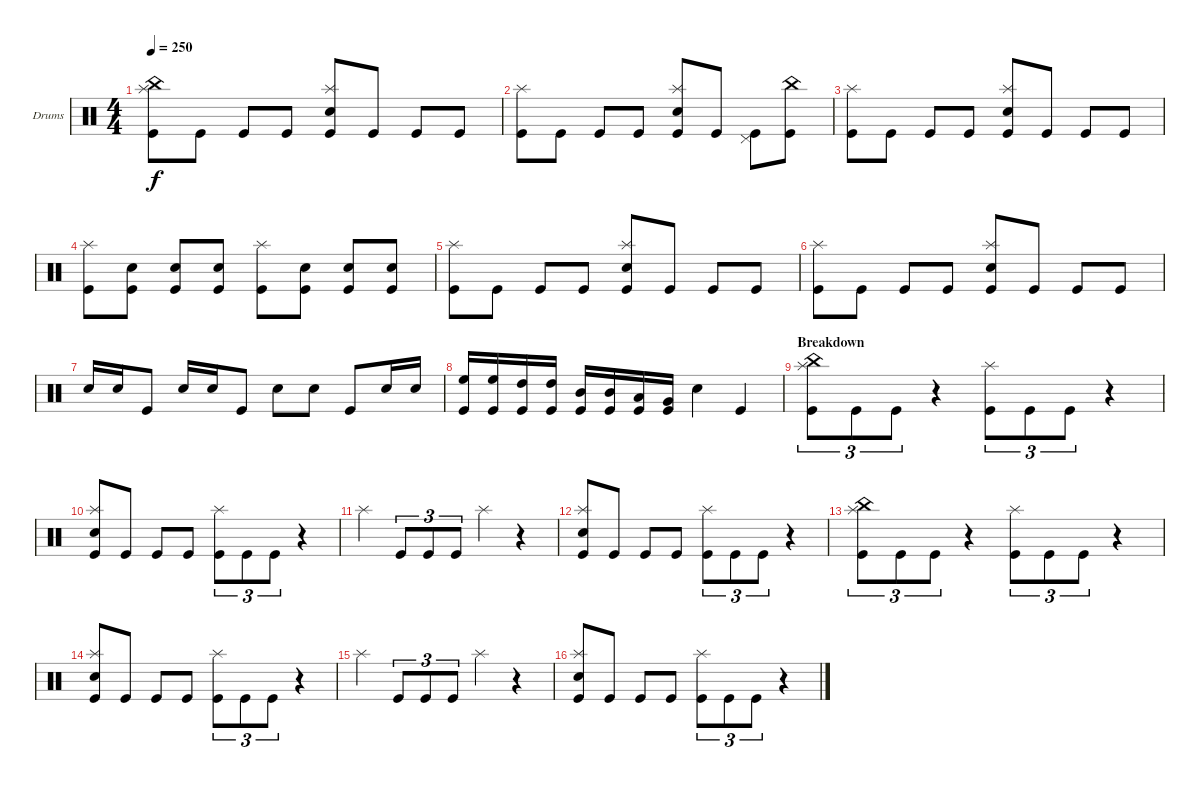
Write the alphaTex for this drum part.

\defaultSystemsLayout 4
\bracketExtendMode groupsimilarinstruments
\firstSystemTrackNameOrientation horizontal
\otherSystemsTrackNameOrientation horizontal
\track ("Drumkit" "Drums") {instrument percussion}
\staff {score}
\articulation defaults
\ts (4 4)
\tempo 250
\clef neutral
\ks c
("Kick (hit)" "Splash (hit)" "China (hit)").8{dy f} "Kick (hit)".8 "Kick (hit)".8 "Kick (hit)".8 ("Kick (hit)" "Splash (hit)" "Snare (hit) 2").8 "Kick (hit)".8 "Kick (hit)".8 "Kick (hit)".8 |
("Kick (hit)" "Splash (hit)").8 "Kick (hit)".8 "Kick (hit)".8 "Kick (hit)".8 ("Kick (hit)" "Splash (hit)" "Snare (hit) 2").8 "Kick (hit)".8 ("Kick (hit)" "Pedal Hi-Hat (hit)").8 ("Kick (hit)" "China (hit)").8 |
("Kick (hit)" "Splash (hit)").8 "Kick (hit)".8 "Kick (hit)".8 "Kick (hit)".8 ("Kick (hit)" "Splash (hit)" "Snare (hit) 2").8 "Kick (hit)".8 "Kick (hit)".8 "Kick (hit)".8 |
("Kick (hit)" "Splash (hit)").8 ("Kick (hit)" "Snare (hit) 2").8 ("Kick (hit)" "Snare (hit) 2").8 ("Kick (hit)" "Snare (hit) 2").8 ("Kick (hit)" "Splash (hit)").8 ("Kick (hit)" "Snare (hit) 2").8 ("Kick (hit)" "Snare (hit) 2").8 ("Kick (hit)" "Snare (hit) 2").8 |
("Kick (hit)" "Splash (hit)").8 "Kick (hit)".8 "Kick (hit)".8 "Kick (hit)".8 ("Kick (hit)" "Splash (hit)" "Snare (hit) 2").8 "Kick (hit)".8 "Kick (hit)".8 "Kick (hit)".8 |
("Kick (hit)" "Splash (hit)").8 "Kick (hit)".8 "Kick (hit)".8 "Kick (hit)".8 ("Kick (hit)" "Splash (hit)" "Snare (hit) 2").8 "Kick (hit)".8 "Kick (hit)".8 "Kick (hit)".8 |
"Snare (hit) 2".16 "Snare (hit) 2".16 "Kick (hit)".8 "Snare (hit) 2".16 "Snare (hit) 2".16 "Kick (hit)".8 "Snare (hit) 2".8 "Snare (hit) 2".8 "Kick (hit)".8 "Snare (hit) 2".16 "Snare (hit) 2".16 |
("Kick (hit)" "High Floor Tom (hit)").16 ("Kick (hit)" "High Floor Tom (hit)").16 ("Kick (hit)" "High Tom (hit)").16 ("Kick (hit)" "High Tom (hit)").16 ("Kick (hit)" "Mid Tom (hit)").16 ("Kick (hit)" "Mid Tom (hit)").16 ("Kick (hit)" "Low Tom (hit)").16 ("Kick (hit)" "Very Low Tom (hit)").16 "Snare (hit) 2".4 "Kick (hit)".4 |
\section ("" "Breakdown")
("Kick (hit)" "China (hit)" "Splash (hit)").8{tu (3 2)} "Kick (hit)".8{tu (3 2)} "Kick (hit)".8{tu (3 2)} r.4 ("Kick (hit)" "Splash (hit)").8{tu (3 2)} "Kick (hit)".8{tu (3 2)} "Kick (hit)".8{tu (3 2)} r.4 |
("Kick (hit)" "Splash (hit)" "Snare (hit) 2").8 "Kick (hit)".8 "Kick (hit)".8 "Kick (hit)".8 ("Kick (hit)" "Splash (hit)").8{tu (3 2)} "Kick (hit)".8{tu (3 2)} "Kick (hit)".8{tu (3 2)} r.4 |
"Splash (hit)".4 "Kick (hit)".8{tu (3 2)} "Kick (hit)".8{tu (3 2)} "Kick (hit)".8{tu (3 2)} "Splash (hit)".4 r.4 |
("Kick (hit)" "Splash (hit)" "Snare (hit) 2").8 "Kick (hit)".8 "Kick (hit)".8 "Kick (hit)".8 ("Kick (hit)" "Splash (hit)").8{tu (3 2)} "Kick (hit)".8{tu (3 2)} "Kick (hit)".8{tu (3 2)} r.4 |
("Kick (hit)" "China (hit)" "Splash (hit)").8{tu (3 2)} "Kick (hit)".8{tu (3 2)} "Kick (hit)".8{tu (3 2)} r.4 ("Kick (hit)" "Splash (hit)").8{tu (3 2)} "Kick (hit)".8{tu (3 2)} "Kick (hit)".8{tu (3 2)} r.4 |
("Kick (hit)" "Splash (hit)" "Snare (hit) 2").8 "Kick (hit)".8 "Kick (hit)".8 "Kick (hit)".8 ("Kick (hit)" "Splash (hit)").8{tu (3 2)} "Kick (hit)".8{tu (3 2)} "Kick (hit)".8{tu (3 2)} r.4 |
"Splash (hit)".4 "Kick (hit)".8{tu (3 2)} "Kick (hit)".8{tu (3 2)} "Kick (hit)".8{tu (3 2)} "Splash (hit)".4 r.4 |
("Kick (hit)" "Splash (hit)" "Snare (hit) 2").8 "Kick (hit)".8 "Kick (hit)".8 "Kick (hit)".8 ("Kick (hit)" "Splash (hit)").8{tu (3 2)} "Kick (hit)".8{tu (3 2)} "Kick (hit)".8{tu (3 2)} r.4
